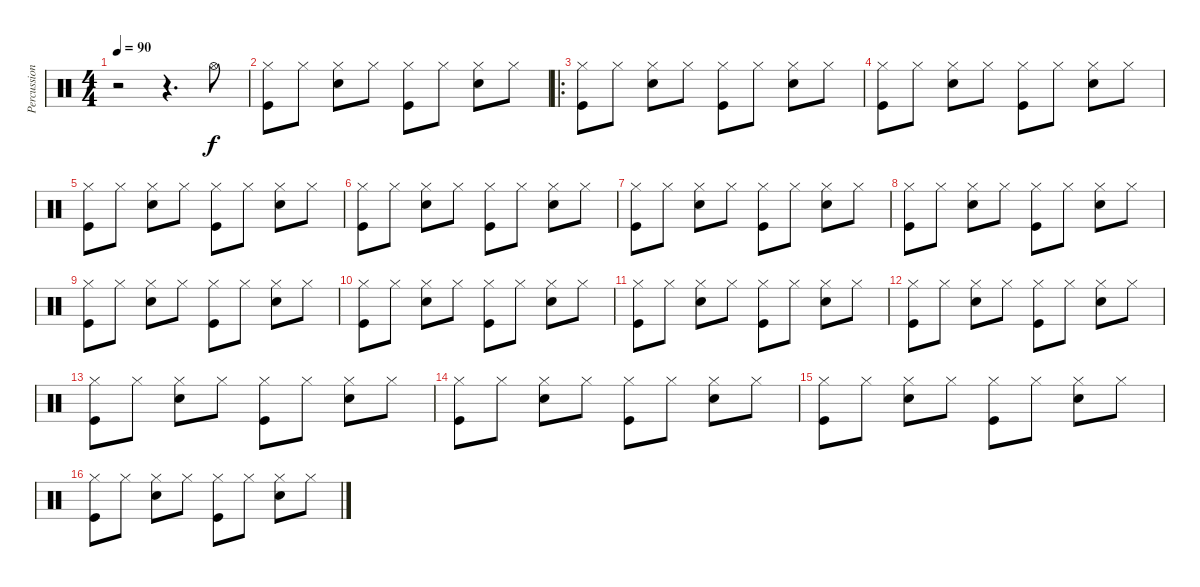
\track ("Percussions" "Percussion") {instrument percussion}
\staff {score}
\articulation defaults
\ts (4 4)
\tempo 90
\clef neutral
\ks c
r.2{dy f} r.4{d} "Hi-Hat (open)".8 |
("Hi-Hat (closed)" "Kick (hit)").8 "Hi-Hat (closed)".8 ("Hi-Hat (closed)" "Electric Snare (hit)").8 "Hi-Hat (closed)".8 ("Hi-Hat (closed)" "Kick (hit)").8 "Hi-Hat (closed)".8 ("Hi-Hat (closed)" "Electric Snare (hit)").8 "Hi-Hat (closed)".8 |
\ro
("Hi-Hat (closed)" "Kick (hit)").8 "Hi-Hat (closed)".8 ("Hi-Hat (closed)" "Electric Snare (hit)").8 "Hi-Hat (closed)".8 ("Hi-Hat (closed)" "Kick (hit)").8 "Hi-Hat (closed)".8 ("Hi-Hat (closed)" "Electric Snare (hit)").8 "Hi-Hat (closed)".8 |
("Hi-Hat (closed)" "Kick (hit)").8 "Hi-Hat (closed)".8 ("Hi-Hat (closed)" "Electric Snare (hit)").8 "Hi-Hat (closed)".8 ("Hi-Hat (closed)" "Kick (hit)").8 "Hi-Hat (closed)".8 ("Hi-Hat (closed)" "Electric Snare (hit)").8 "Hi-Hat (closed)".8 |
("Hi-Hat (closed)" "Kick (hit)").8 "Hi-Hat (closed)".8 ("Hi-Hat (closed)" "Electric Snare (hit)").8 "Hi-Hat (closed)".8 ("Hi-Hat (closed)" "Kick (hit)").8 "Hi-Hat (closed)".8 ("Hi-Hat (closed)" "Electric Snare (hit)").8 "Hi-Hat (closed)".8 |
("Hi-Hat (closed)" "Kick (hit)").8 "Hi-Hat (closed)".8 ("Hi-Hat (closed)" "Electric Snare (hit)").8 "Hi-Hat (closed)".8 ("Hi-Hat (closed)" "Kick (hit)").8 "Hi-Hat (closed)".8 ("Hi-Hat (closed)" "Electric Snare (hit)").8 "Hi-Hat (closed)".8 |
("Hi-Hat (closed)" "Kick (hit)").8 "Hi-Hat (closed)".8 ("Hi-Hat (closed)" "Electric Snare (hit)").8 "Hi-Hat (closed)".8 ("Hi-Hat (closed)" "Kick (hit)").8 "Hi-Hat (closed)".8 ("Hi-Hat (closed)" "Electric Snare (hit)").8 "Hi-Hat (closed)".8 |
("Hi-Hat (closed)" "Kick (hit)").8 "Hi-Hat (closed)".8 ("Hi-Hat (closed)" "Electric Snare (hit)").8 "Hi-Hat (closed)".8 ("Hi-Hat (closed)" "Kick (hit)").8 "Hi-Hat (closed)".8 ("Hi-Hat (closed)" "Electric Snare (hit)").8 "Hi-Hat (closed)".8 |
("Hi-Hat (closed)" "Kick (hit)").8 "Hi-Hat (closed)".8 ("Hi-Hat (closed)" "Electric Snare (hit)").8 "Hi-Hat (closed)".8 ("Hi-Hat (closed)" "Kick (hit)").8 "Hi-Hat (closed)".8 ("Hi-Hat (closed)" "Electric Snare (hit)").8 "Hi-Hat (closed)".8 |
("Hi-Hat (closed)" "Kick (hit)").8 "Hi-Hat (closed)".8 ("Hi-Hat (closed)" "Electric Snare (hit)").8 "Hi-Hat (closed)".8 ("Hi-Hat (closed)" "Kick (hit)").8 "Hi-Hat (closed)".8 ("Hi-Hat (closed)" "Electric Snare (hit)").8 "Hi-Hat (closed)".8 |
("Hi-Hat (closed)" "Kick (hit)").8 "Hi-Hat (closed)".8 ("Hi-Hat (closed)" "Electric Snare (hit)").8 "Hi-Hat (closed)".8 ("Hi-Hat (closed)" "Kick (hit)").8 "Hi-Hat (closed)".8 ("Hi-Hat (closed)" "Electric Snare (hit)").8 "Hi-Hat (closed)".8 |
("Hi-Hat (closed)" "Kick (hit)").8 "Hi-Hat (closed)".8 ("Hi-Hat (closed)" "Electric Snare (hit)").8 "Hi-Hat (closed)".8 ("Hi-Hat (closed)" "Kick (hit)").8 "Hi-Hat (closed)".8 ("Hi-Hat (closed)" "Electric Snare (hit)").8 "Hi-Hat (closed)".8 |
("Hi-Hat (closed)" "Kick (hit)").8 "Hi-Hat (closed)".8 ("Hi-Hat (closed)" "Electric Snare (hit)").8 "Hi-Hat (closed)".8 ("Hi-Hat (closed)" "Kick (hit)").8 "Hi-Hat (closed)".8 ("Hi-Hat (closed)" "Electric Snare (hit)").8 "Hi-Hat (closed)".8 |
("Hi-Hat (closed)" "Kick (hit)").8 "Hi-Hat (closed)".8 ("Hi-Hat (closed)" "Electric Snare (hit)").8 "Hi-Hat (closed)".8 ("Hi-Hat (closed)" "Kick (hit)").8 "Hi-Hat (closed)".8 ("Hi-Hat (closed)" "Electric Snare (hit)").8 "Hi-Hat (closed)".8 |
("Hi-Hat (closed)" "Kick (hit)").8 "Hi-Hat (closed)".8 ("Hi-Hat (closed)" "Electric Snare (hit)").8 "Hi-Hat (closed)".8 ("Hi-Hat (closed)" "Kick (hit)").8 "Hi-Hat (closed)".8 ("Hi-Hat (closed)" "Electric Snare (hit)").8 "Hi-Hat (closed)".8 |
("Hi-Hat (closed)" "Kick (hit)").8 "Hi-Hat (closed)".8 ("Hi-Hat (closed)" "Electric Snare (hit)").8 "Hi-Hat (closed)".8 ("Hi-Hat (closed)" "Kick (hit)").8 "Hi-Hat (closed)".8 ("Hi-Hat (closed)" "Electric Snare (hit)").8 "Hi-Hat (closed)".8
